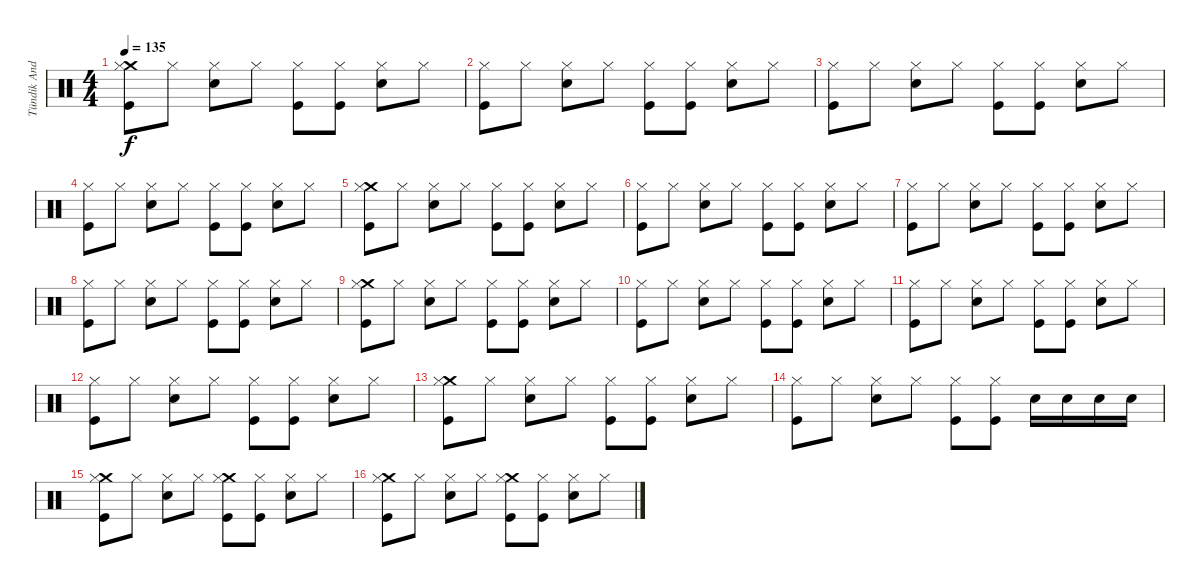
\track ("Tündik András - Dob" "Tündik And") {instrument percussion}
\staff {score}
\articulation defaults
\ts (4 4)
\tempo 135
\clef neutral
\ks c
("Crash medium (hit)" "Hi-Hat (closed)" "Kick (hit)").8{dy f} "Hi-Hat (closed)".8 ("Snare (hit) 2" "Hi-Hat (closed)").8 "Hi-Hat (closed)".8 ("Hi-Hat (closed)" "Kick (hit)").8 ("Hi-Hat (closed)" "Kick (hit)").8 ("Snare (hit) 2" "Hi-Hat (closed)").8 "Hi-Hat (closed)".8 |
("Hi-Hat (closed)" "Kick (hit)").8 "Hi-Hat (closed)".8 ("Snare (hit) 2" "Hi-Hat (closed)").8 "Hi-Hat (closed)".8 ("Hi-Hat (closed)" "Kick (hit)").8 ("Hi-Hat (closed)" "Kick (hit)").8 ("Snare (hit) 2" "Hi-Hat (closed)").8 "Hi-Hat (closed)".8 |
("Hi-Hat (closed)" "Kick (hit)").8 "Hi-Hat (closed)".8 ("Snare (hit) 2" "Hi-Hat (closed)").8 "Hi-Hat (closed)".8 ("Hi-Hat (closed)" "Kick (hit)").8 ("Hi-Hat (closed)" "Kick (hit)").8 ("Snare (hit) 2" "Hi-Hat (closed)").8 "Hi-Hat (closed)".8 |
("Hi-Hat (closed)" "Kick (hit)").8 "Hi-Hat (closed)".8 ("Snare (hit) 2" "Hi-Hat (closed)").8 "Hi-Hat (closed)".8 ("Hi-Hat (closed)" "Kick (hit)").8 ("Hi-Hat (closed)" "Kick (hit)").8 ("Snare (hit) 2" "Hi-Hat (closed)").8 "Hi-Hat (closed)".8 |
("Crash medium (hit)" "Hi-Hat (closed)" "Kick (hit)").8 "Hi-Hat (closed)".8 ("Snare (hit) 2" "Hi-Hat (closed)").8 "Hi-Hat (closed)".8 ("Hi-Hat (closed)" "Kick (hit)").8 ("Hi-Hat (closed)" "Kick (hit)").8 ("Snare (hit) 2" "Hi-Hat (closed)").8 "Hi-Hat (closed)".8 |
("Hi-Hat (closed)" "Kick (hit)").8 "Hi-Hat (closed)".8 ("Snare (hit) 2" "Hi-Hat (closed)").8 "Hi-Hat (closed)".8 ("Hi-Hat (closed)" "Kick (hit)").8 ("Hi-Hat (closed)" "Kick (hit)").8 ("Snare (hit) 2" "Hi-Hat (closed)").8 "Hi-Hat (closed)".8 |
("Hi-Hat (closed)" "Kick (hit)").8 "Hi-Hat (closed)".8 ("Snare (hit) 2" "Hi-Hat (closed)").8 "Hi-Hat (closed)".8 ("Hi-Hat (closed)" "Kick (hit)").8 ("Hi-Hat (closed)" "Kick (hit)").8 ("Snare (hit) 2" "Hi-Hat (closed)").8 "Hi-Hat (closed)".8 |
("Hi-Hat (closed)" "Kick (hit)").8 "Hi-Hat (closed)".8 ("Snare (hit) 2" "Hi-Hat (closed)").8 "Hi-Hat (closed)".8 ("Hi-Hat (closed)" "Kick (hit)").8 ("Hi-Hat (closed)" "Kick (hit)").8 ("Snare (hit) 2" "Hi-Hat (closed)").8 "Hi-Hat (closed)".8 |
("Crash medium (hit)" "Hi-Hat (closed)" "Kick (hit)").8 "Hi-Hat (closed)".8 ("Snare (hit) 2" "Hi-Hat (closed)").8 "Hi-Hat (closed)".8 ("Hi-Hat (closed)" "Kick (hit)").8 ("Hi-Hat (closed)" "Kick (hit)").8 ("Snare (hit) 2" "Hi-Hat (closed)").8 "Hi-Hat (closed)".8 |
("Hi-Hat (closed)" "Kick (hit)").8 "Hi-Hat (closed)".8 ("Snare (hit) 2" "Hi-Hat (closed)").8 "Hi-Hat (closed)".8 ("Hi-Hat (closed)" "Kick (hit)").8 ("Hi-Hat (closed)" "Kick (hit)").8 ("Snare (hit) 2" "Hi-Hat (closed)").8 "Hi-Hat (closed)".8 |
("Hi-Hat (closed)" "Kick (hit)").8 "Hi-Hat (closed)".8 ("Snare (hit) 2" "Hi-Hat (closed)").8 "Hi-Hat (closed)".8 ("Hi-Hat (closed)" "Kick (hit)").8 ("Hi-Hat (closed)" "Kick (hit)").8 ("Snare (hit) 2" "Hi-Hat (closed)").8 "Hi-Hat (closed)".8 |
("Hi-Hat (closed)" "Kick (hit)").8 "Hi-Hat (closed)".8 ("Snare (hit) 2" "Hi-Hat (closed)").8 "Hi-Hat (closed)".8 ("Hi-Hat (closed)" "Kick (hit)").8 ("Hi-Hat (closed)" "Kick (hit)").8 ("Snare (hit) 2" "Hi-Hat (closed)").8 "Hi-Hat (closed)".8 |
("Crash medium (hit)" "Hi-Hat (closed)" "Kick (hit)").8 "Hi-Hat (closed)".8 ("Snare (hit) 2" "Hi-Hat (closed)").8 "Hi-Hat (closed)".8 ("Hi-Hat (closed)" "Kick (hit)").8 ("Hi-Hat (closed)" "Kick (hit)").8 ("Snare (hit) 2" "Hi-Hat (closed)").8 "Hi-Hat (closed)".8 |
("Hi-Hat (closed)" "Kick (hit)").8 "Hi-Hat (closed)".8 ("Snare (hit) 2" "Hi-Hat (closed)").8 "Hi-Hat (closed)".8 ("Hi-Hat (closed)" "Kick (hit)").8 ("Hi-Hat (closed)" "Kick (hit)").8 "Snare (hit) 2".16 "Snare (hit) 2".16 "Snare (hit) 2".16 "Snare (hit) 2".16 |
("Crash medium (hit)" "Hi-Hat (closed)" "Kick (hit)").8 "Hi-Hat (closed)".8 ("Snare (hit) 2" "Hi-Hat (closed)").8 "Hi-Hat (closed)".8 ("Crash medium (hit)" "Hi-Hat (closed)" "Kick (hit)").8 ("Hi-Hat (closed)" "Kick (hit)").8 ("Snare (hit) 2" "Hi-Hat (closed)").8 "Hi-Hat (closed)".8 |
("Crash medium (hit)" "Hi-Hat (closed)" "Kick (hit)").8 "Hi-Hat (closed)".8 ("Snare (hit) 2" "Hi-Hat (closed)").8 "Hi-Hat (closed)".8 ("Crash medium (hit)" "Hi-Hat (closed)" "Kick (hit)").8 ("Hi-Hat (closed)" "Kick (hit)").8 ("Snare (hit) 2" "Hi-Hat (closed)").8 "Hi-Hat (closed)".8
